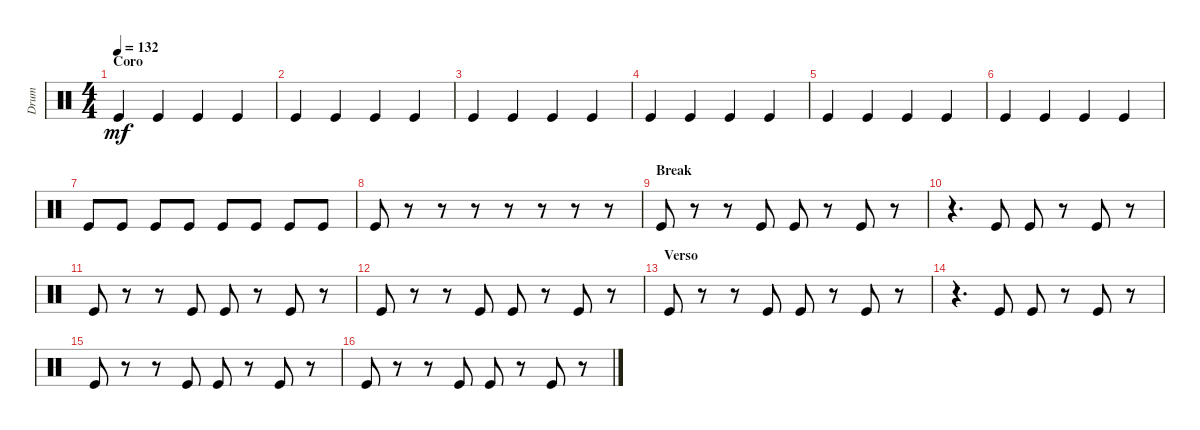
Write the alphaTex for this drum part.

\track ("Drum" "Drum") {instrument percussion}
\staff {score}
\articulation defaults
\ts (4 4)
\section ("" "Coro")
\tempo 132
\clef neutral
\ks c "Kick (hit)".4{dy mf} "Kick (hit)".4 "Kick (hit)".4 "Kick (hit)".4
|
"Kick (hit)".4 "Kick (hit)".4 "Kick (hit)".4 "Kick (hit)".4 |
"Kick (hit)".4 "Kick (hit)".4 "Kick (hit)".4 "Kick (hit)".4 |
"Kick (hit)".4 "Kick (hit)".4 "Kick (hit)".4 "Kick (hit)".4 |
"Kick (hit)".4 "Kick (hit)".4 "Kick (hit)".4 "Kick (hit)".4 |
"Kick (hit)".4 "Kick (hit)".4 "Kick (hit)".4 "Kick (hit)".4 |
"Kick (hit)".8 "Kick (hit)".8 "Kick (hit)".8 "Kick (hit)".8 "Kick (hit)".8 "Kick (hit)".8 "Kick (hit)".8 "Kick (hit)".8 |
"Kick (hit)".8 r.8 r.8 r.8 r.8 r.8 r.8 r.8 |
\section ("" "Break")
"Kick (hit)".8 r.8 r.8 "Kick (hit)".8 "Kick (hit)".8 r.8 "Kick (hit)".8 r.8 |
r.4{d} "Kick (hit)".8 "Kick (hit)".8 r.8 "Kick (hit)".8 r.8 |
"Kick (hit)".8 r.8 r.8 "Kick (hit)".8 "Kick (hit)".8 r.8 "Kick (hit)".8 r.8 |
"Kick (hit)".8 r.8 r.8 "Kick (hit)".8 "Kick (hit)".8 r.8 "Kick (hit)".8 r.8 |
\section ("" "Verso")
"Kick (hit)".8 r.8 r.8 "Kick (hit)".8 "Kick (hit)".8 r.8 "Kick (hit)".8 r.8 |
r.4{d} "Kick (hit)".8 "Kick (hit)".8 r.8 "Kick (hit)".8 r.8 |
"Kick (hit)".8 r.8 r.8 "Kick (hit)".8 "Kick (hit)".8 r.8 "Kick (hit)".8 r.8 |
"Kick (hit)".8 r.8 r.8 "Kick (hit)".8 "Kick (hit)".8 r.8 "Kick (hit)".8 r.8
